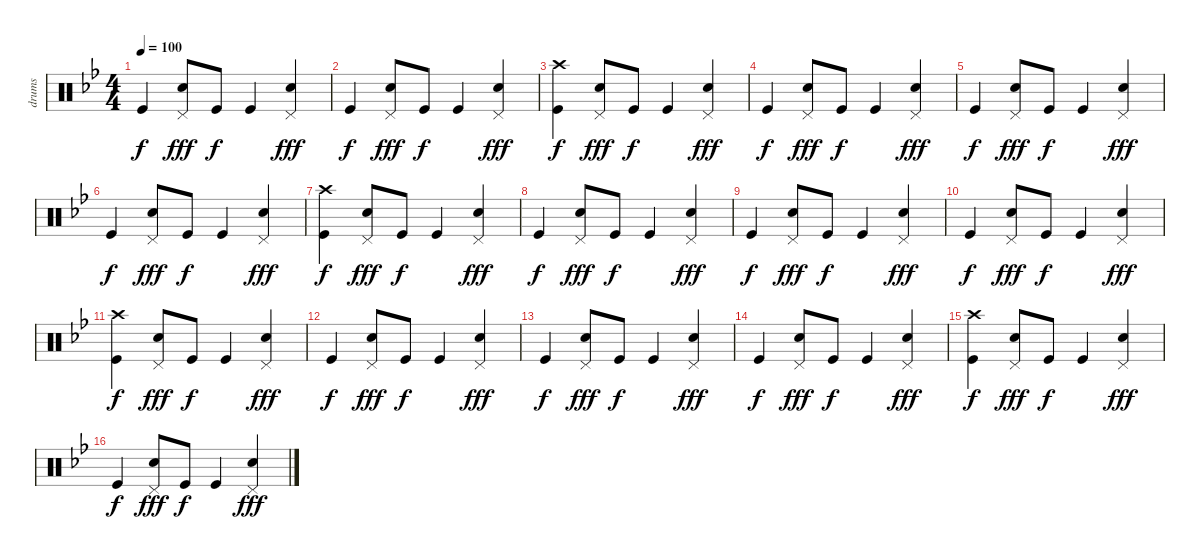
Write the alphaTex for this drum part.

\track ("drums" "drums") {instrument percussion}
\staff {score}
\articulation defaults
\ts (4 4)
\tempo 100
\clef neutral
\ks gminor "Kick (hit)".4{dy f}
("Pedal Hi-Hat (hit)" "Electric Snare (hit)").8{dy fff} "Kick (hit)".8{dy f} "Kick (hit)".4 ("Pedal Hi-Hat (hit)" "Electric Snare (hit)").4{dy fff} |
"Kick (hit)".4{dy f} ("Pedal Hi-Hat (hit)" "Electric Snare (hit)").8{dy fff} "Kick (hit)".8{dy f} "Kick (hit)".4 ("Pedal Hi-Hat (hit)" "Electric Snare (hit)").4{dy fff} |
("Crash high (hit)" "Kick (hit)").4{dy f} ("Pedal Hi-Hat (hit)" "Electric Snare (hit)").8{dy fff} "Kick (hit)".8{dy f} "Kick (hit)".4 ("Pedal Hi-Hat (hit)" "Electric Snare (hit)").4{dy fff} |
"Kick (hit)".4{dy f} ("Pedal Hi-Hat (hit)" "Electric Snare (hit)").8{dy fff} "Kick (hit)".8{dy f} "Kick (hit)".4 ("Pedal Hi-Hat (hit)" "Electric Snare (hit)").4{dy fff} |
"Kick (hit)".4{dy f} ("Pedal Hi-Hat (hit)" "Electric Snare (hit)").8{dy fff} "Kick (hit)".8{dy f} "Kick (hit)".4 ("Pedal Hi-Hat (hit)" "Electric Snare (hit)").4{dy fff} |
"Kick (hit)".4{dy f} ("Pedal Hi-Hat (hit)" "Electric Snare (hit)").8{dy fff} "Kick (hit)".8{dy f} "Kick (hit)".4 ("Pedal Hi-Hat (hit)" "Electric Snare (hit)").4{dy fff} |
("Crash high (hit)" "Kick (hit)").4{dy f} ("Pedal Hi-Hat (hit)" "Electric Snare (hit)").8{dy fff} "Kick (hit)".8{dy f} "Kick (hit)".4 ("Pedal Hi-Hat (hit)" "Electric Snare (hit)").4{dy fff} |
"Kick (hit)".4{dy f} ("Pedal Hi-Hat (hit)" "Electric Snare (hit)").8{dy fff} "Kick (hit)".8{dy f} "Kick (hit)".4 ("Pedal Hi-Hat (hit)" "Electric Snare (hit)").4{dy fff} |
"Kick (hit)".4{dy f} ("Pedal Hi-Hat (hit)" "Electric Snare (hit)").8{dy fff} "Kick (hit)".8{dy f} "Kick (hit)".4 ("Pedal Hi-Hat (hit)" "Electric Snare (hit)").4{dy fff} |
"Kick (hit)".4{dy f} ("Pedal Hi-Hat (hit)" "Electric Snare (hit)").8{dy fff} "Kick (hit)".8{dy f} "Kick (hit)".4 ("Pedal Hi-Hat (hit)" "Electric Snare (hit)").4{dy fff} |
("Crash high (hit)" "Kick (hit)").4{dy f} ("Pedal Hi-Hat (hit)" "Electric Snare (hit)").8{dy fff} "Kick (hit)".8{dy f} "Kick (hit)".4 ("Pedal Hi-Hat (hit)" "Electric Snare (hit)").4{dy fff} |
"Kick (hit)".4{dy f} ("Pedal Hi-Hat (hit)" "Electric Snare (hit)").8{dy fff} "Kick (hit)".8{dy f} "Kick (hit)".4 ("Pedal Hi-Hat (hit)" "Electric Snare (hit)").4{dy fff} |
"Kick (hit)".4{dy f} ("Pedal Hi-Hat (hit)" "Electric Snare (hit)").8{dy fff} "Kick (hit)".8{dy f} "Kick (hit)".4 ("Pedal Hi-Hat (hit)" "Electric Snare (hit)").4{dy fff} |
"Kick (hit)".4{dy f} ("Pedal Hi-Hat (hit)" "Electric Snare (hit)").8{dy fff} "Kick (hit)".8{dy f} "Kick (hit)".4 ("Pedal Hi-Hat (hit)" "Electric Snare (hit)").4{dy fff} |
("Crash high (hit)" "Kick (hit)").4{dy f} ("Pedal Hi-Hat (hit)" "Electric Snare (hit)").8{dy fff} "Kick (hit)".8{dy f} "Kick (hit)".4 ("Pedal Hi-Hat (hit)" "Electric Snare (hit)").4{dy fff} |
"Kick (hit)".4{dy f} ("Pedal Hi-Hat (hit)" "Electric Snare (hit)").8{dy fff} "Kick (hit)".8{dy f} "Kick (hit)".4 ("Pedal Hi-Hat (hit)" "Electric Snare (hit)").4{dy fff}
